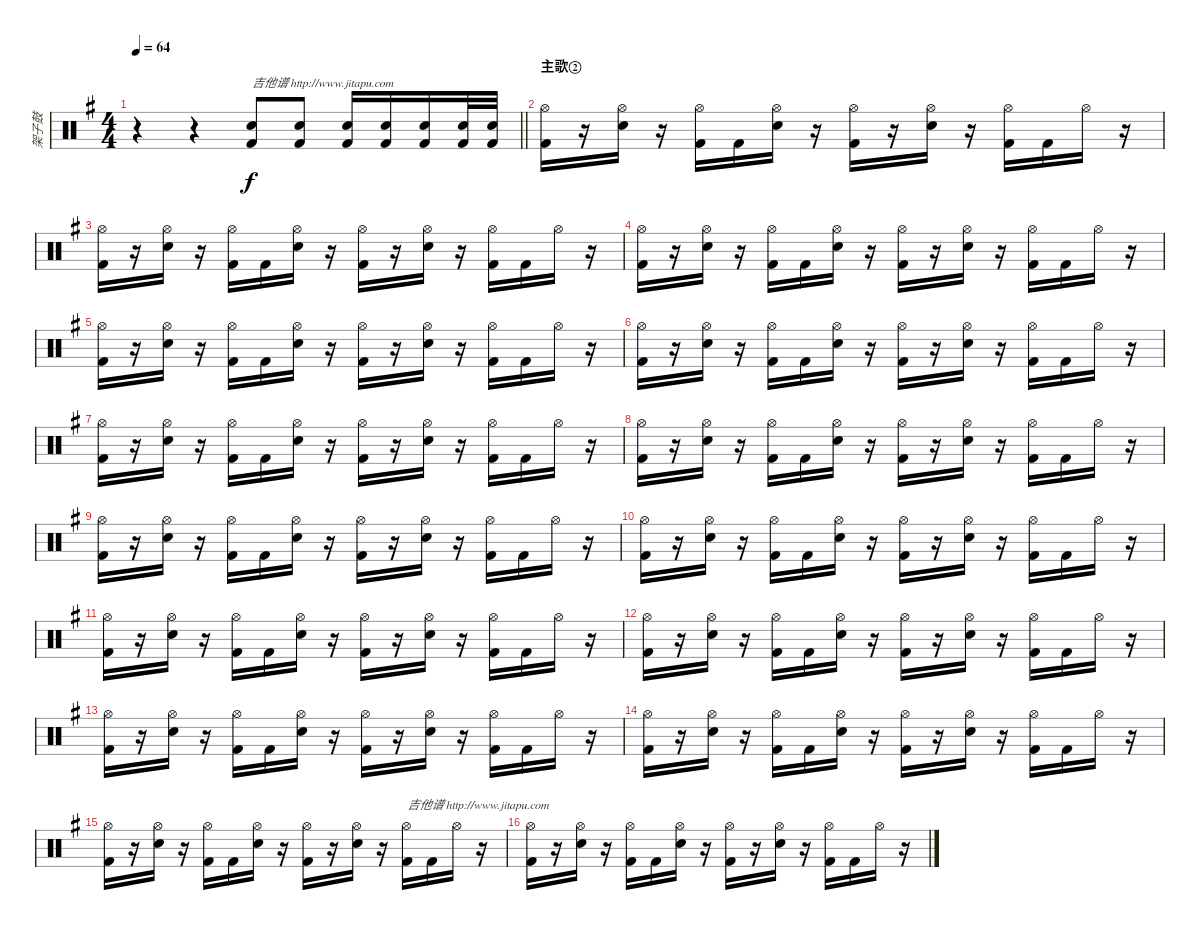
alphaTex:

\track ("架子鼓" "架子鼓") {instrument percussion}
\staff {score}
\articulation defaults
\ts (4 4)
\tempo 64
\clef neutral
\barLineRight lightlight
\ks g
r.4{dy f} r.4 ("Electric Snare (hit)" "Kick (hit) 2").8{txt "吉他谱 http://www.jitapu.com"} ("Electric Snare (hit)" "Kick (hit) 2").8 ("Electric Snare (hit)" "Kick (hit) 2").16 ("Electric Snare (hit)" "Kick (hit) 2").16 ("Electric Snare (hit)" "Kick (hit) 2").16 ("Electric Snare (hit)" "Kick (hit) 2").32 ("Electric Snare (hit)" "Kick (hit) 2").32 |
\section ("" "主歌②")
("Hi-Hat (open)" "Kick (hit) 2").16 r.16 ("Hi-Hat (open)" "Electric Snare (hit)").16 r.16 ("Hi-Hat (open)" "Kick (hit) 2").16 "Kick (hit) 2".16 ("Hi-Hat (open)" "Electric Snare (hit)").16 r.16 ("Hi-Hat (open)" "Kick (hit) 2").16 r.16 ("Hi-Hat (open)" "Electric Snare (hit)").16 r.16 ("Hi-Hat (open)" "Kick (hit) 2").16 "Kick (hit) 2".16 "Hi-Hat (open)".16 r.16 |
("Hi-Hat (open)" "Kick (hit) 2").16 r.16 ("Hi-Hat (open)" "Electric Snare (hit)").16 r.16 ("Hi-Hat (open)" "Kick (hit) 2").16 "Kick (hit) 2".16 ("Hi-Hat (open)" "Electric Snare (hit)").16 r.16 ("Hi-Hat (open)" "Kick (hit) 2").16 r.16 ("Hi-Hat (open)" "Electric Snare (hit)").16 r.16 ("Hi-Hat (open)" "Kick (hit) 2").16 "Kick (hit) 2".16 "Hi-Hat (open)".16 r.16 |
("Hi-Hat (open)" "Kick (hit) 2").16 r.16 ("Hi-Hat (open)" "Electric Snare (hit)").16 r.16 ("Hi-Hat (open)" "Kick (hit) 2").16 "Kick (hit) 2".16 ("Hi-Hat (open)" "Electric Snare (hit)").16 r.16 ("Hi-Hat (open)" "Kick (hit) 2").16 r.16 ("Hi-Hat (open)" "Electric Snare (hit)").16 r.16 ("Hi-Hat (open)" "Kick (hit) 2").16 "Kick (hit) 2".16 "Hi-Hat (open)".16 r.16 |
("Hi-Hat (open)" "Kick (hit) 2").16 r.16 ("Hi-Hat (open)" "Electric Snare (hit)").16 r.16 ("Hi-Hat (open)" "Kick (hit) 2").16 "Kick (hit) 2".16 ("Hi-Hat (open)" "Electric Snare (hit)").16 r.16 ("Hi-Hat (open)" "Kick (hit) 2").16 r.16 ("Hi-Hat (open)" "Electric Snare (hit)").16 r.16 ("Hi-Hat (open)" "Kick (hit) 2").16 "Kick (hit) 2".16 "Hi-Hat (open)".16 r.16 |
("Hi-Hat (open)" "Kick (hit) 2").16 r.16 ("Hi-Hat (open)" "Electric Snare (hit)").16 r.16 ("Hi-Hat (open)" "Kick (hit) 2").16 "Kick (hit) 2".16 ("Hi-Hat (open)" "Electric Snare (hit)").16 r.16 ("Hi-Hat (open)" "Kick (hit) 2").16 r.16 ("Hi-Hat (open)" "Electric Snare (hit)").16 r.16 ("Hi-Hat (open)" "Kick (hit) 2").16 "Kick (hit) 2".16 "Hi-Hat (open)".16 r.16 |
("Hi-Hat (open)" "Kick (hit) 2").16 r.16 ("Hi-Hat (open)" "Electric Snare (hit)").16 r.16 ("Hi-Hat (open)" "Kick (hit) 2").16 "Kick (hit) 2".16 ("Hi-Hat (open)" "Electric Snare (hit)").16 r.16 ("Hi-Hat (open)" "Kick (hit) 2").16 r.16 ("Hi-Hat (open)" "Electric Snare (hit)").16 r.16 ("Hi-Hat (open)" "Kick (hit) 2").16 "Kick (hit) 2".16 "Hi-Hat (open)".16 r.16 |
("Hi-Hat (open)" "Kick (hit) 2").16 r.16 ("Hi-Hat (open)" "Electric Snare (hit)").16 r.16 ("Hi-Hat (open)" "Kick (hit) 2").16 "Kick (hit) 2".16 ("Hi-Hat (open)" "Electric Snare (hit)").16 r.16 ("Hi-Hat (open)" "Kick (hit) 2").16 r.16 ("Hi-Hat (open)" "Electric Snare (hit)").16 r.16 ("Hi-Hat (open)" "Kick (hit) 2").16 "Kick (hit) 2".16 "Hi-Hat (open)".16 r.16 |
("Hi-Hat (open)" "Kick (hit) 2").16 r.16 ("Hi-Hat (open)" "Electric Snare (hit)").16 r.16 ("Hi-Hat (open)" "Kick (hit) 2").16 "Kick (hit) 2".16 ("Hi-Hat (open)" "Electric Snare (hit)").16 r.16 ("Hi-Hat (open)" "Kick (hit) 2").16 r.16 ("Hi-Hat (open)" "Electric Snare (hit)").16 r.16 ("Hi-Hat (open)" "Kick (hit) 2").16 "Kick (hit) 2".16 "Hi-Hat (open)".16 r.16 |
("Hi-Hat (open)" "Kick (hit) 2").16 r.16 ("Hi-Hat (open)" "Electric Snare (hit)").16 r.16 ("Hi-Hat (open)" "Kick (hit) 2").16 "Kick (hit) 2".16 ("Hi-Hat (open)" "Electric Snare (hit)").16 r.16 ("Hi-Hat (open)" "Kick (hit) 2").16 r.16 ("Hi-Hat (open)" "Electric Snare (hit)").16 r.16 ("Hi-Hat (open)" "Kick (hit) 2").16 "Kick (hit) 2".16 "Hi-Hat (open)".16 r.16 |
("Hi-Hat (open)" "Kick (hit) 2").16 r.16 ("Hi-Hat (open)" "Electric Snare (hit)").16 r.16 ("Hi-Hat (open)" "Kick (hit) 2").16 "Kick (hit) 2".16 ("Hi-Hat (open)" "Electric Snare (hit)").16 r.16 ("Hi-Hat (open)" "Kick (hit) 2").16 r.16 ("Hi-Hat (open)" "Electric Snare (hit)").16 r.16 ("Hi-Hat (open)" "Kick (hit) 2").16 "Kick (hit) 2".16 "Hi-Hat (open)".16 r.16 |
("Hi-Hat (open)" "Kick (hit) 2").16 r.16 ("Hi-Hat (open)" "Electric Snare (hit)").16 r.16 ("Hi-Hat (open)" "Kick (hit) 2").16 "Kick (hit) 2".16 ("Hi-Hat (open)" "Electric Snare (hit)").16 r.16 ("Hi-Hat (open)" "Kick (hit) 2").16 r.16 ("Hi-Hat (open)" "Electric Snare (hit)").16 r.16 ("Hi-Hat (open)" "Kick (hit) 2").16 "Kick (hit) 2".16 "Hi-Hat (open)".16 r.16 |
("Hi-Hat (open)" "Kick (hit) 2").16 r.16 ("Hi-Hat (open)" "Electric Snare (hit)").16 r.16 ("Hi-Hat (open)" "Kick (hit) 2").16 "Kick (hit) 2".16 ("Hi-Hat (open)" "Electric Snare (hit)").16 r.16 ("Hi-Hat (open)" "Kick (hit) 2").16 r.16 ("Hi-Hat (open)" "Electric Snare (hit)").16 r.16 ("Hi-Hat (open)" "Kick (hit) 2").16 "Kick (hit) 2".16 "Hi-Hat (open)".16 r.16 |
("Hi-Hat (open)" "Kick (hit) 2").16 r.16 ("Hi-Hat (open)" "Electric Snare (hit)").16 r.16 ("Hi-Hat (open)" "Kick (hit) 2").16 "Kick (hit) 2".16 ("Hi-Hat (open)" "Electric Snare (hit)").16 r.16 ("Hi-Hat (open)" "Kick (hit) 2").16 r.16 ("Hi-Hat (open)" "Electric Snare (hit)").16 r.16 ("Hi-Hat (open)" "Kick (hit) 2").16 "Kick (hit) 2".16 "Hi-Hat (open)".16 r.16 |
("Hi-Hat (open)" "Kick (hit) 2").16 r.16 ("Hi-Hat (open)" "Electric Snare (hit)").16 r.16 ("Hi-Hat (open)" "Kick (hit) 2").16 "Kick (hit) 2".16 ("Hi-Hat (open)" "Electric Snare (hit)").16 r.16 ("Hi-Hat (open)" "Kick (hit) 2").16 r.16 ("Hi-Hat (open)" "Electric Snare (hit)").16 r.16 ("Hi-Hat (open)" "Kick (hit) 2").16{txt "吉他谱 http://www.jitapu.com"} "Kick (hit) 2".16 "Hi-Hat (open)".16 r.16 |
("Hi-Hat (open)" "Kick (hit) 2").16 r.16 ("Hi-Hat (open)" "Electric Snare (hit)").16 r.16 ("Hi-Hat (open)" "Kick (hit) 2").16 "Kick (hit) 2".16 ("Hi-Hat (open)" "Electric Snare (hit)").16 r.16 ("Hi-Hat (open)" "Kick (hit) 2").16 r.16 ("Hi-Hat (open)" "Electric Snare (hit)").16 r.16 ("Hi-Hat (open)" "Kick (hit) 2").16 "Kick (hit) 2".16 "Hi-Hat (open)".16 r.16
